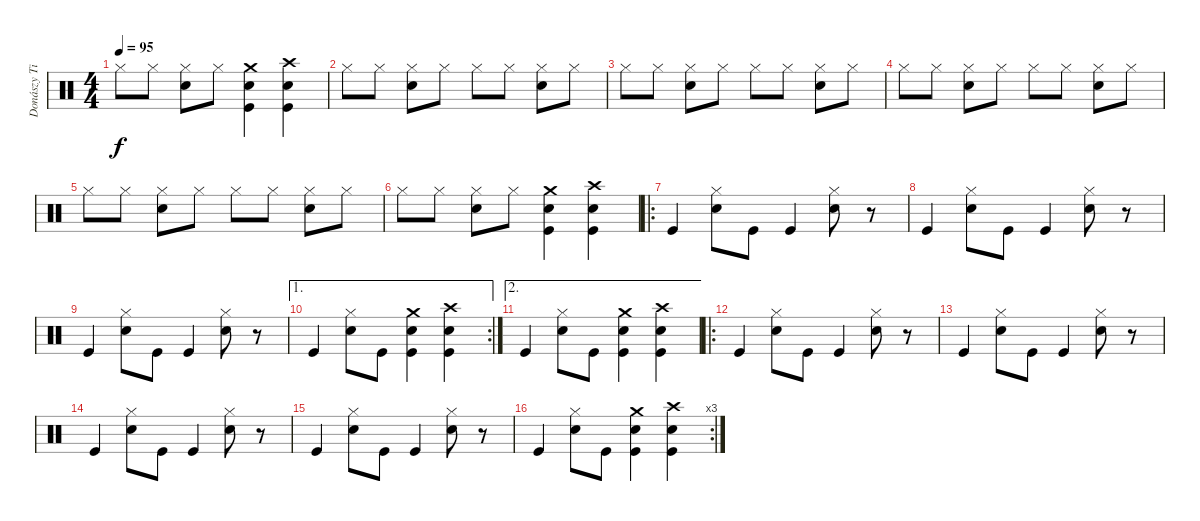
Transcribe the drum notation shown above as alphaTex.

\track ("Donászy Tibor" "Donászy Ti") {instrument percussion}
\staff {score}
\articulation defaults
\ts (4 4)
\tempo 95
\clef neutral
\ks c "Hi-Hat (closed)".8{dy f} "Hi-Hat (closed)".8
("Hi-Hat (closed)" "Snare (hit) 2").8 "Hi-Hat (closed)".8 ("Kick (hit)" "Snare (hit) 2" "Crash medium (hit)").4 ("Kick (hit)" "Snare (hit) 2" "Crash high (hit)").4 |
"Hi-Hat (closed)".8 "Hi-Hat (closed)".8 ("Hi-Hat (closed)" "Snare (hit) 2").8 "Hi-Hat (closed)".8 "Hi-Hat (closed)".8 "Hi-Hat (closed)".8 ("Hi-Hat (closed)" "Snare (hit) 2").8 "Hi-Hat (closed)".8 |
"Hi-Hat (closed)".8 "Hi-Hat (closed)".8 ("Hi-Hat (closed)" "Snare (hit) 2").8 "Hi-Hat (closed)".8 "Hi-Hat (closed)".8 "Hi-Hat (closed)".8 ("Hi-Hat (closed)" "Snare (hit) 2").8 "Hi-Hat (closed)".8 |
"Hi-Hat (closed)".8 "Hi-Hat (closed)".8 ("Hi-Hat (closed)" "Snare (hit) 2").8 "Hi-Hat (closed)".8 "Hi-Hat (closed)".8 "Hi-Hat (closed)".8 ("Hi-Hat (closed)" "Snare (hit) 2").8 "Hi-Hat (closed)".8 |
"Hi-Hat (closed)".8 "Hi-Hat (closed)".8 ("Hi-Hat (closed)" "Snare (hit) 2").8 "Hi-Hat (closed)".8 "Hi-Hat (closed)".8 "Hi-Hat (closed)".8 ("Hi-Hat (closed)" "Snare (hit) 2").8 "Hi-Hat (closed)".8 |
"Hi-Hat (closed)".8 "Hi-Hat (closed)".8 ("Hi-Hat (closed)" "Snare (hit) 2").8 "Hi-Hat (closed)".8 ("Kick (hit)" "Snare (hit) 2" "Crash medium (hit)").4 ("Kick (hit)" "Snare (hit) 2" "Crash high (hit)").4 |
\ro "Kick (hit)".4
("Hi-Hat (closed)" "Snare (hit) 2").8 "Kick (hit)".8 "Kick (hit)".4 ("Hi-Hat (closed)" "Snare (hit) 2").8 r.8 |
"Kick (hit)".4 ("Hi-Hat (closed)" "Snare (hit) 2").8 "Kick (hit)".8 "Kick (hit)".4 ("Hi-Hat (closed)" "Snare (hit) 2").8 r.8 |
"Kick (hit)".4 ("Hi-Hat (closed)" "Snare (hit) 2").8 "Kick (hit)".8 "Kick (hit)".4 ("Hi-Hat (closed)" "Snare (hit) 2").8 r.8 |
\ae 1
\rc 2 "Kick (hit)".4
("Hi-Hat (closed)" "Snare (hit) 2").8 "Kick (hit)".8 ("Kick (hit)" "Snare (hit) 2" "Crash medium (hit)").4 ("Kick (hit)" "Snare (hit) 2" "Crash high (hit)").4 |
\ae 2 "Kick (hit)".4
("Hi-Hat (closed)" "Snare (hit) 2").8 "Kick (hit)".8 ("Kick (hit)" "Snare (hit) 2" "Crash medium (hit)").4 ("Kick (hit)" "Snare (hit) 2" "Crash high (hit)").4 |
\ro "Kick (hit)".4
("Hi-Hat (closed)" "Snare (hit) 2").8 "Kick (hit)".8 "Kick (hit)".4 ("Hi-Hat (closed)" "Snare (hit) 2").8 r.8 |
"Kick (hit)".4 ("Hi-Hat (closed)" "Snare (hit) 2").8 "Kick (hit)".8 "Kick (hit)".4 ("Hi-Hat (closed)" "Snare (hit) 2").8 r.8 |
"Kick (hit)".4 ("Hi-Hat (closed)" "Snare (hit) 2").8 "Kick (hit)".8 "Kick (hit)".4 ("Hi-Hat (closed)" "Snare (hit) 2").8 r.8 |
"Kick (hit)".4 ("Hi-Hat (closed)" "Snare (hit) 2").8 "Kick (hit)".8 "Kick (hit)".4 ("Hi-Hat (closed)" "Snare (hit) 2").8 r.8 |
\rc 3 "Kick (hit)".4
("Hi-Hat (closed)" "Snare (hit) 2").8 "Kick (hit)".8 ("Kick (hit)" "Snare (hit) 2" "Crash medium (hit)").4 ("Kick (hit)" "Snare (hit) 2" "Crash high (hit)").4
